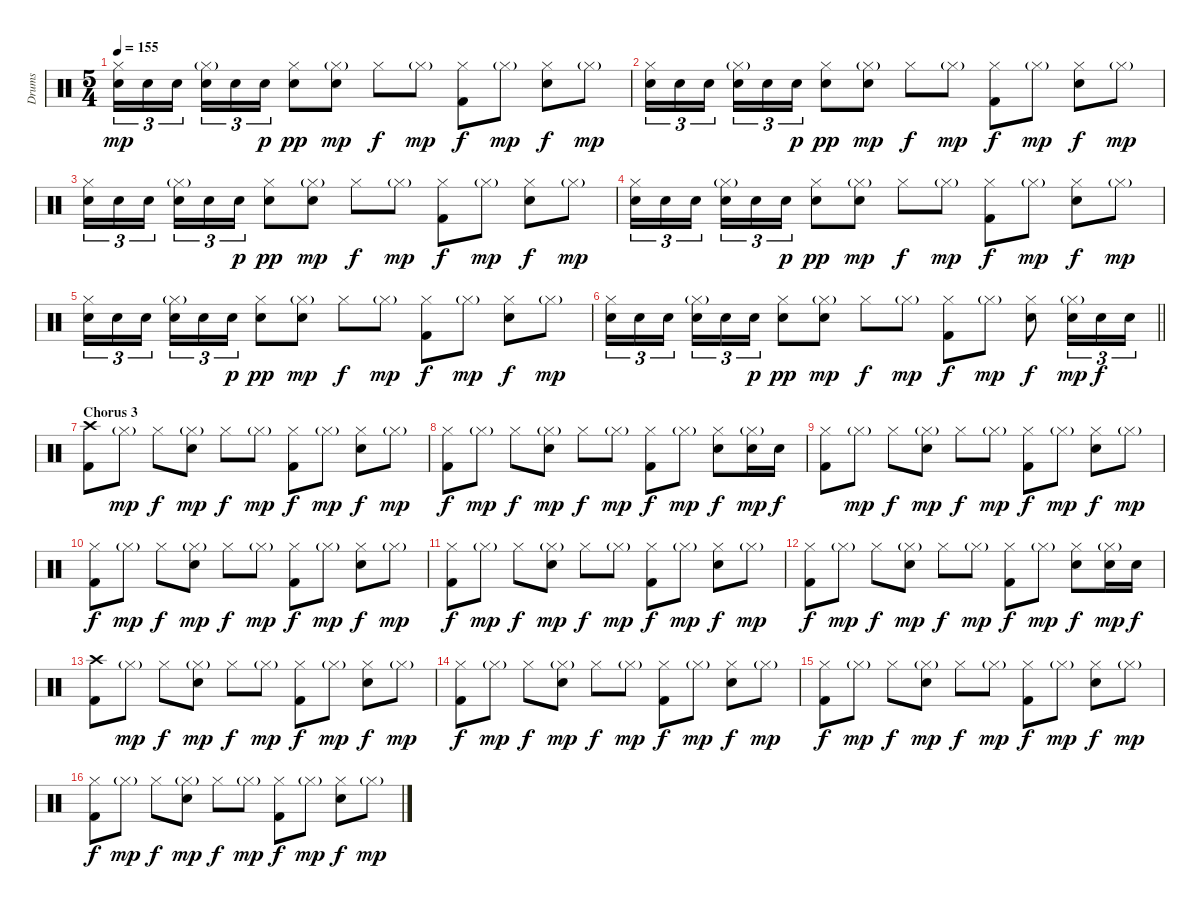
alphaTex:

\track ("Drums" "Drums") {instrument percussion}
\staff {score}
\articulation defaults
\ts (5 4)
\tempo 155
\clef neutral
\ks c
("Hi-Hat (closed)" "Electric Snare (hit)").16{tu (3 2) dy mp} "Electric Snare (hit)".16{tu (3 2)} "Electric Snare (hit)".16{tu (3 2) beam splitsecondary} ("Hi-Hat (closed)"{g} "Electric Snare (hit)").16{tu (3 2)} "Electric Snare (hit)".16{tu (3 2)} "Electric Snare (hit)".16{tu (3 2) dy p} ("Hi-Hat (closed)" "Electric Snare (hit)").8{dy pp} ("Hi-Hat (closed)"{g} "Electric Snare (hit)").8{dy mp} "Hi-Hat (closed)".8{dy f} "Hi-Hat (closed)"{g}.8{dy mp} ("Hi-Hat (closed)" "Kick (hit) 2").8{dy f} "Hi-Hat (closed)"{g}.8{dy mp} ("Hi-Hat (closed)" "Electric Snare (hit)").8{dy f} "Hi-Hat (closed)"{g}.8{dy mp} |
("Hi-Hat (closed)" "Electric Snare (hit)").16{tu (3 2)} "Electric Snare (hit)".16{tu (3 2)} "Electric Snare (hit)".16{tu (3 2) beam splitsecondary} ("Hi-Hat (closed)"{g} "Electric Snare (hit)").16{tu (3 2)} "Electric Snare (hit)".16{tu (3 2)} "Electric Snare (hit)".16{tu (3 2) dy p} ("Hi-Hat (closed)" "Electric Snare (hit)").8{dy pp} ("Hi-Hat (closed)"{g} "Electric Snare (hit)").8{dy mp} "Hi-Hat (closed)".8{dy f} "Hi-Hat (closed)"{g}.8{dy mp} ("Hi-Hat (closed)" "Kick (hit) 2").8{dy f} "Hi-Hat (closed)"{g}.8{dy mp} ("Hi-Hat (closed)" "Electric Snare (hit)").8{dy f} "Hi-Hat (closed)"{g}.8{dy mp} |
("Hi-Hat (closed)" "Electric Snare (hit)").16{tu (3 2)} "Electric Snare (hit)".16{tu (3 2)} "Electric Snare (hit)".16{tu (3 2) beam splitsecondary} ("Hi-Hat (closed)"{g} "Electric Snare (hit)").16{tu (3 2)} "Electric Snare (hit)".16{tu (3 2)} "Electric Snare (hit)".16{tu (3 2) dy p} ("Hi-Hat (closed)" "Electric Snare (hit)").8{dy pp} ("Hi-Hat (closed)"{g} "Electric Snare (hit)").8{dy mp} "Hi-Hat (closed)".8{dy f} "Hi-Hat (closed)"{g}.8{dy mp} ("Hi-Hat (closed)" "Kick (hit) 2").8{dy f} "Hi-Hat (closed)"{g}.8{dy mp} ("Hi-Hat (closed)" "Electric Snare (hit)").8{dy f} "Hi-Hat (closed)"{g}.8{dy mp} |
("Hi-Hat (closed)" "Electric Snare (hit)").16{tu (3 2)} "Electric Snare (hit)".16{tu (3 2)} "Electric Snare (hit)".16{tu (3 2) beam splitsecondary} ("Hi-Hat (closed)"{g} "Electric Snare (hit)").16{tu (3 2)} "Electric Snare (hit)".16{tu (3 2)} "Electric Snare (hit)".16{tu (3 2) dy p} ("Hi-Hat (closed)" "Electric Snare (hit)").8{dy pp} ("Hi-Hat (closed)"{g} "Electric Snare (hit)").8{dy mp} "Hi-Hat (closed)".8{dy f} "Hi-Hat (closed)"{g}.8{dy mp} ("Hi-Hat (closed)" "Kick (hit) 2").8{dy f} "Hi-Hat (closed)"{g}.8{dy mp} ("Hi-Hat (closed)" "Electric Snare (hit)").8{dy f} "Hi-Hat (closed)"{g}.8{dy mp} |
("Hi-Hat (closed)" "Electric Snare (hit)").16{tu (3 2)} "Electric Snare (hit)".16{tu (3 2)} "Electric Snare (hit)".16{tu (3 2) beam splitsecondary} ("Hi-Hat (closed)"{g} "Electric Snare (hit)").16{tu (3 2)} "Electric Snare (hit)".16{tu (3 2)} "Electric Snare (hit)".16{tu (3 2) dy p} ("Hi-Hat (closed)" "Electric Snare (hit)").8{dy pp} ("Hi-Hat (closed)"{g} "Electric Snare (hit)").8{dy mp} "Hi-Hat (closed)".8{dy f} "Hi-Hat (closed)"{g}.8{dy mp} ("Hi-Hat (closed)" "Kick (hit) 2").8{dy f} "Hi-Hat (closed)"{g}.8{dy mp} ("Hi-Hat (closed)" "Electric Snare (hit)").8{dy f} "Hi-Hat (closed)"{g}.8{dy mp} |
\barLineRight lightlight
("Hi-Hat (closed)" "Electric Snare (hit)").16{tu (3 2)} "Electric Snare (hit)".16{tu (3 2)} "Electric Snare (hit)".16{tu (3 2) beam splitsecondary} ("Hi-Hat (closed)"{g} "Electric Snare (hit)").16{tu (3 2)} "Electric Snare (hit)".16{tu (3 2)} "Electric Snare (hit)".16{tu (3 2) dy p} ("Hi-Hat (closed)" "Electric Snare (hit)").8{dy pp} ("Hi-Hat (closed)"{g} "Electric Snare (hit)").8{dy mp} "Hi-Hat (closed)".8{dy f} "Hi-Hat (closed)"{g}.8{dy mp} ("Hi-Hat (closed)" "Kick (hit) 2").8{dy f} "Hi-Hat (closed)"{g}.8{dy mp} ("Hi-Hat (closed)" "Electric Snare (hit)").8{dy f} ("Hi-Hat (closed)"{g} "Electric Snare (hit)").16{tu (3 2) dy mp} "Electric Snare (hit)".16{tu (3 2) dy f} "Electric Snare (hit)".16{tu (3 2)} |
\section ("" "Chorus 3")
("Crash high (hit)" "Kick (hit) 2").8 "Hi-Hat (closed)"{g}.8{dy mp} "Hi-Hat (closed)".8{dy f} ("Hi-Hat (closed)"{g} "Electric Snare (hit)").8{dy mp} "Hi-Hat (closed)".8{dy f} "Hi-Hat (closed)"{g}.8{dy mp} ("Hi-Hat (closed)" "Kick (hit) 2").8{dy f} "Hi-Hat (closed)"{g}.8{dy mp} ("Hi-Hat (closed)" "Electric Snare (hit)").8{dy f} "Hi-Hat (closed)"{g}.8{dy mp} |
("Hi-Hat (closed)" "Kick (hit) 2").8{dy f} "Hi-Hat (closed)"{g}.8{dy mp} "Hi-Hat (closed)".8{dy f} ("Hi-Hat (closed)"{g} "Electric Snare (hit)").8{dy mp} "Hi-Hat (closed)".8{dy f} "Hi-Hat (closed)"{g}.8{dy mp} ("Hi-Hat (closed)" "Kick (hit) 2").8{dy f} "Hi-Hat (closed)"{g}.8{dy mp} ("Hi-Hat (closed)" "Electric Snare (hit)").8{dy f} ("Hi-Hat (closed)"{g} "Electric Snare (hit)").16{dy mp} "Electric Snare (hit)".16{dy f} |
("Hi-Hat (closed)" "Kick (hit) 2").8 "Hi-Hat (closed)"{g}.8{dy mp} "Hi-Hat (closed)".8{dy f} ("Hi-Hat (closed)"{g} "Electric Snare (hit)").8{dy mp} "Hi-Hat (closed)".8{dy f} "Hi-Hat (closed)"{g}.8{dy mp} ("Hi-Hat (closed)" "Kick (hit) 2").8{dy f} "Hi-Hat (closed)"{g}.8{dy mp} ("Hi-Hat (closed)" "Electric Snare (hit)").8{dy f} "Hi-Hat (closed)"{g}.8{dy mp} |
("Hi-Hat (closed)" "Kick (hit) 2").8{dy f} "Hi-Hat (closed)"{g}.8{dy mp} "Hi-Hat (closed)".8{dy f} ("Hi-Hat (closed)"{g} "Electric Snare (hit)").8{dy mp} "Hi-Hat (closed)".8{dy f} "Hi-Hat (closed)"{g}.8{dy mp} ("Hi-Hat (closed)" "Kick (hit) 2").8{dy f} "Hi-Hat (closed)"{g}.8{dy mp} ("Hi-Hat (closed)" "Electric Snare (hit)").8{dy f} "Hi-Hat (closed)"{g}.8{dy mp} |
("Hi-Hat (closed)" "Kick (hit) 2").8{dy f} "Hi-Hat (closed)"{g}.8{dy mp} "Hi-Hat (closed)".8{dy f} ("Hi-Hat (closed)"{g} "Electric Snare (hit)").8{dy mp} "Hi-Hat (closed)".8{dy f} "Hi-Hat (closed)"{g}.8{dy mp} ("Hi-Hat (closed)" "Kick (hit) 2").8{dy f} "Hi-Hat (closed)"{g}.8{dy mp} ("Hi-Hat (closed)" "Electric Snare (hit)").8{dy f} "Hi-Hat (closed)"{g}.8{dy mp} |
("Hi-Hat (closed)" "Kick (hit) 2").8{dy f} "Hi-Hat (closed)"{g}.8{dy mp} "Hi-Hat (closed)".8{dy f} ("Hi-Hat (closed)"{g} "Electric Snare (hit)").8{dy mp} "Hi-Hat (closed)".8{dy f} "Hi-Hat (closed)"{g}.8{dy mp} ("Hi-Hat (closed)" "Kick (hit) 2").8{dy f} "Hi-Hat (closed)"{g}.8{dy mp} ("Hi-Hat (closed)" "Electric Snare (hit)").8{dy f} ("Hi-Hat (closed)"{g} "Electric Snare (hit)").16{dy mp} "Electric Snare (hit)".16{dy f} |
("Crash high (hit)" "Kick (hit) 2").8 "Hi-Hat (closed)"{g}.8{dy mp} "Hi-Hat (closed)".8{dy f} ("Hi-Hat (closed)"{g} "Electric Snare (hit)").8{dy mp} "Hi-Hat (closed)".8{dy f} "Hi-Hat (closed)"{g}.8{dy mp} ("Hi-Hat (closed)" "Kick (hit) 2").8{dy f} "Hi-Hat (closed)"{g}.8{dy mp} ("Hi-Hat (closed)" "Electric Snare (hit)").8{dy f} "Hi-Hat (closed)"{g}.8{dy mp} |
("Hi-Hat (closed)" "Kick (hit) 2").8{dy f} "Hi-Hat (closed)"{g}.8{dy mp} "Hi-Hat (closed)".8{dy f} ("Hi-Hat (closed)"{g} "Electric Snare (hit)").8{dy mp} "Hi-Hat (closed)".8{dy f} "Hi-Hat (closed)"{g}.8{dy mp} ("Hi-Hat (closed)" "Kick (hit) 2").8{dy f} "Hi-Hat (closed)"{g}.8{dy mp} ("Hi-Hat (closed)" "Electric Snare (hit)").8{dy f} "Hi-Hat (closed)"{g}.8{dy mp} |
("Hi-Hat (closed)" "Kick (hit) 2").8{dy f} "Hi-Hat (closed)"{g}.8{dy mp} "Hi-Hat (closed)".8{dy f} ("Hi-Hat (closed)"{g} "Electric Snare (hit)").8{dy mp} "Hi-Hat (closed)".8{dy f} "Hi-Hat (closed)"{g}.8{dy mp} ("Hi-Hat (closed)" "Kick (hit) 2").8{dy f} "Hi-Hat (closed)"{g}.8{dy mp} ("Hi-Hat (closed)" "Electric Snare (hit)").8{dy f} "Hi-Hat (closed)"{g}.8{dy mp} |
("Hi-Hat (closed)" "Kick (hit) 2").8{dy f} "Hi-Hat (closed)"{g}.8{dy mp} "Hi-Hat (closed)".8{dy f} ("Hi-Hat (closed)"{g} "Electric Snare (hit)").8{dy mp} "Hi-Hat (closed)".8{dy f} "Hi-Hat (closed)"{g}.8{dy mp} ("Hi-Hat (closed)" "Kick (hit) 2").8{dy f} "Hi-Hat (closed)"{g}.8{dy mp} ("Hi-Hat (closed)" "Electric Snare (hit)").8{dy f} "Hi-Hat (closed)"{g}.8{dy mp}
